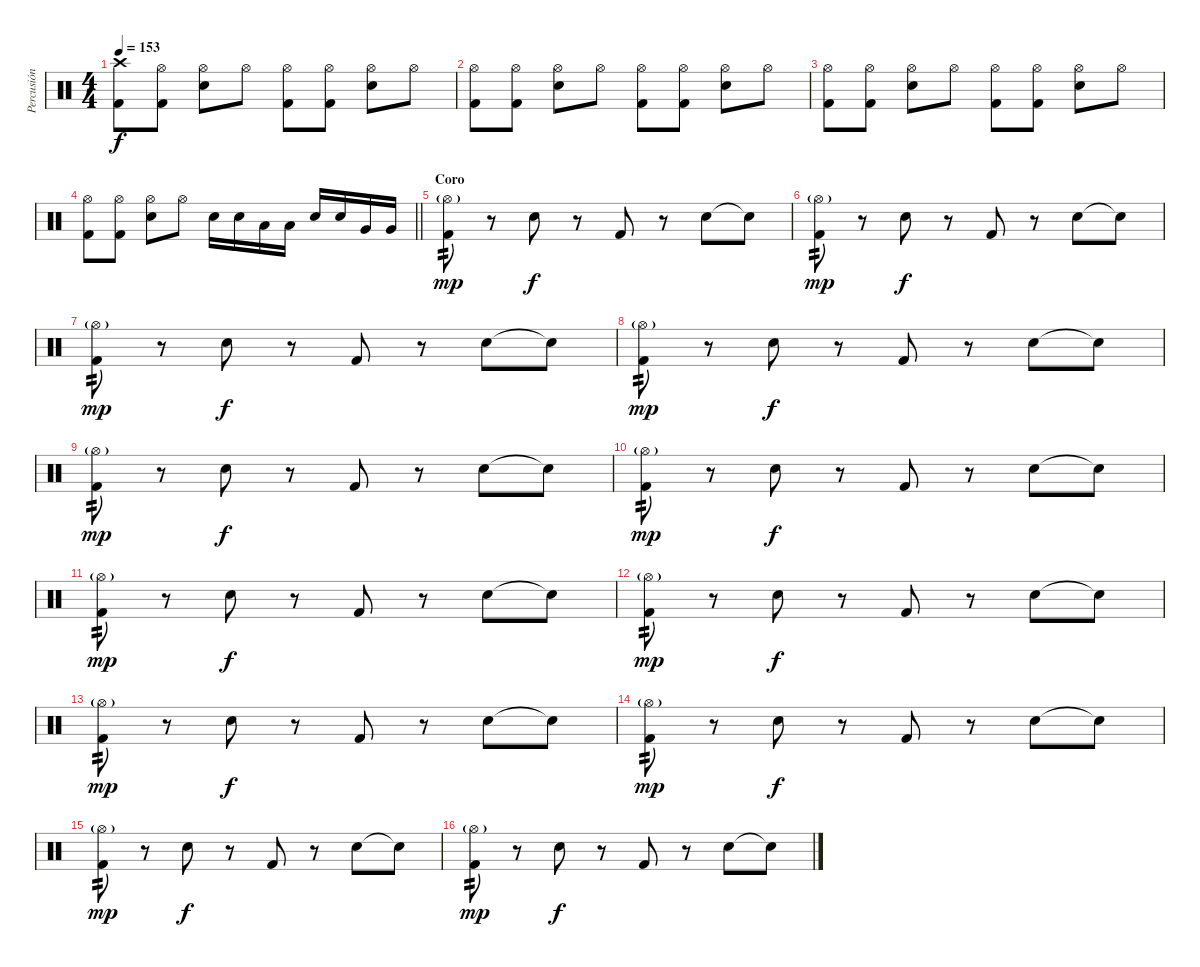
\track ("Percusión" "Percusión") {instrument percussion}
\staff {score}
\articulation defaults
\ts (4 4)
\tempo 153
\clef neutral
\ks c
("Crash high (hit)" "Kick (hit) 2").8{dy f} ("Hi-Hat (open)" "Kick (hit) 2").8 ("Hi-Hat (open)" "Snare (hit) 2").8 "Hi-Hat (open)".8 ("Hi-Hat (open)" "Kick (hit) 2").8 ("Hi-Hat (open)" "Kick (hit) 2").8 ("Hi-Hat (open)" "Snare (hit) 2").8 "Hi-Hat (open)".8 |
("Hi-Hat (open)" "Kick (hit) 2").8 ("Hi-Hat (open)" "Kick (hit) 2").8 ("Hi-Hat (open)" "Snare (hit) 2").8 "Hi-Hat (open)".8 ("Hi-Hat (open)" "Kick (hit) 2").8 ("Hi-Hat (open)" "Kick (hit) 2").8 ("Hi-Hat (open)" "Snare (hit) 2").8 "Hi-Hat (open)".8 |
("Hi-Hat (open)" "Kick (hit) 2").8 ("Hi-Hat (open)" "Kick (hit) 2").8 ("Hi-Hat (open)" "Snare (hit) 2").8 "Hi-Hat (open)".8 ("Hi-Hat (open)" "Kick (hit) 2").8 ("Hi-Hat (open)" "Kick (hit) 2").8 ("Hi-Hat (open)" "Snare (hit) 2").8 "Hi-Hat (open)".8 |
\barLineRight lightlight
("Hi-Hat (open)" "Kick (hit) 2").8 ("Hi-Hat (open)" "Kick (hit) 2").8 ("Hi-Hat (open)" "Snare (hit) 2").8 "Hi-Hat (open)".8 "Snare (hit) 2".16 "Snare (hit) 2".16 "Low Tom (hit)".16 "Low Tom (hit)".16 "Snare (hit) 2".16 "Snare (hit) 2".16 "Very Low Tom (hit)".16 "Very Low Tom (hit)".16 |
\section ("" "Coro")
("Hi-Hat (open)"{g} "Kick (hit) 2").8{tp 2 dy mp} r.8 "Snare (hit) 2".8{dy f} r.8 "Kick (hit) 2".8 r.8 "Snare (hit) 2".8 "Snare (hit)"{t}.8 |
("Hi-Hat (open)"{g} "Kick (hit) 2").8{tp 2 dy mp} r.8 "Snare (hit) 2".8{dy f} r.8 "Kick (hit) 2".8 r.8 "Snare (hit) 2".8 "Snare (hit)"{t}.8 |
("Hi-Hat (open)"{g} "Kick (hit) 2").8{tp 2 dy mp} r.8 "Snare (hit) 2".8{dy f} r.8 "Kick (hit) 2".8 r.8 "Snare (hit) 2".8 "Snare (hit)"{t}.8 |
("Hi-Hat (open)"{g} "Kick (hit) 2").8{tp 2 dy mp} r.8 "Snare (hit) 2".8{dy f} r.8 "Kick (hit) 2".8 r.8 "Snare (hit) 2".8 "Snare (hit)"{t}.8 |
("Hi-Hat (open)"{g} "Kick (hit) 2").8{tp 2 dy mp} r.8 "Snare (hit) 2".8{dy f} r.8 "Kick (hit) 2".8 r.8 "Snare (hit) 2".8 "Snare (hit)"{t}.8 |
("Hi-Hat (open)"{g} "Kick (hit) 2").8{tp 2 dy mp} r.8 "Snare (hit) 2".8{dy f} r.8 "Kick (hit) 2".8 r.8 "Snare (hit) 2".8 "Snare (hit)"{t}.8 |
("Hi-Hat (open)"{g} "Kick (hit) 2").8{tp 2 dy mp} r.8 "Snare (hit) 2".8{dy f} r.8 "Kick (hit) 2".8 r.8 "Snare (hit) 2".8 "Snare (hit)"{t}.8 |
("Hi-Hat (open)"{g} "Kick (hit) 2").8{tp 2 dy mp} r.8 "Snare (hit) 2".8{dy f} r.8 "Kick (hit) 2".8 r.8 "Snare (hit) 2".8 "Snare (hit)"{t}.8 |
("Hi-Hat (open)"{g} "Kick (hit) 2").8{tp 2 dy mp} r.8 "Snare (hit) 2".8{dy f} r.8 "Kick (hit) 2".8 r.8 "Snare (hit) 2".8 "Snare (hit)"{t}.8 |
("Hi-Hat (open)"{g} "Kick (hit) 2").8{tp 2 dy mp} r.8 "Snare (hit) 2".8{dy f} r.8 "Kick (hit) 2".8 r.8 "Snare (hit) 2".8 "Snare (hit)"{t}.8 |
("Hi-Hat (open)"{g} "Kick (hit) 2").8{tp 2 dy mp} r.8 "Snare (hit) 2".8{dy f} r.8 "Kick (hit) 2".8 r.8 "Snare (hit) 2".8 "Snare (hit)"{t}.8 |
("Hi-Hat (open)"{g} "Kick (hit) 2").8{tp 2 dy mp} r.8 "Snare (hit) 2".8{dy f} r.8 "Kick (hit) 2".8 r.8 "Snare (hit) 2".8 "Snare (hit)"{t}.8
